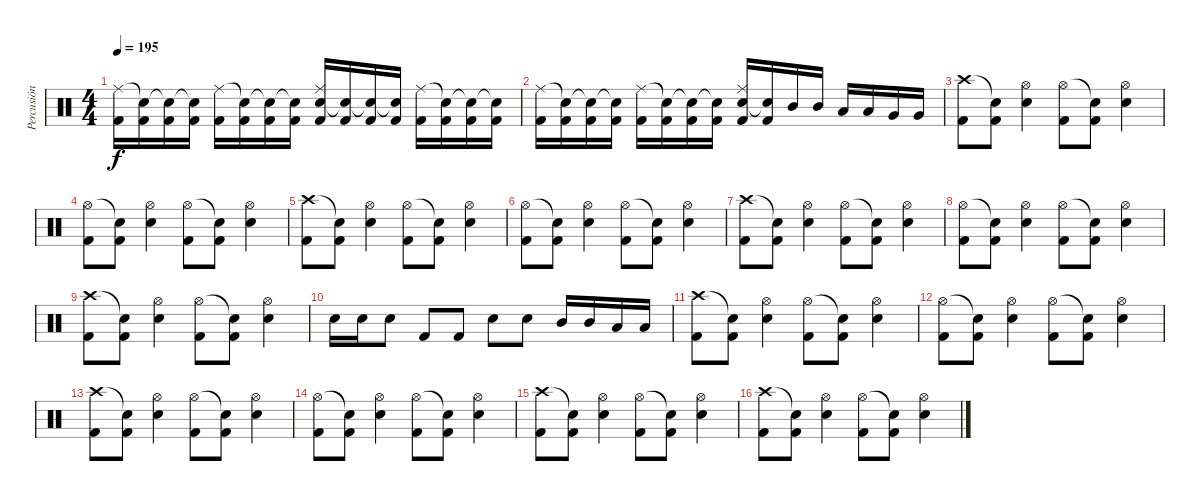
\track ("Percusión" "Percusión") {instrument percussion}
\staff {score}
\articulation defaults
\ts (4 4)
\tempo 195
\clef neutral
\ks c
("Kick (hit) 2" "Ride (middle)").16{dy f} ("Kick (hit) 2" "Snare (hit)"{t}).16 ("Kick (hit) 2" "Snare (hit)"{t}).16 ("Kick (hit) 2" "Snare (hit)"{t}).16 ("Kick (hit) 2" "Ride (middle)").16 ("Kick (hit) 2" "Snare (hit)"{t}).16 ("Kick (hit) 2" "Snare (hit)"{t}).16 ("Kick (hit) 2" "Snare (hit)"{t}).16 ("Kick (hit) 2" "Snare (hit) 2" "Ride (middle)").16 ("Kick (hit) 2" "Snare (hit)"{t}).16 ("Kick (hit) 2" "Snare (hit)"{t}).16 ("Kick (hit) 2" "Snare (hit)"{t}).16 ("Kick (hit) 2" "Ride (middle)").16 ("Kick (hit) 2" "Snare (hit)"{t}).16 ("Kick (hit) 2" "Snare (hit)"{t}).16 ("Kick (hit) 2" "Snare (hit)"{t}).16 |
("Kick (hit) 2" "Ride (middle)").16 ("Kick (hit) 2" "Snare (hit)"{t}).16 ("Kick (hit) 2" "Snare (hit)"{t}).16 ("Kick (hit) 2" "Snare (hit)"{t}).16 ("Kick (hit) 2" "Ride (middle)").16 ("Kick (hit) 2" "Snare (hit)"{t}).16 ("Kick (hit) 2" "Snare (hit)"{t}).16 ("Kick (hit) 2" "Snare (hit)"{t}).16 ("Kick (hit) 2" "Snare (hit) 2" "Ride (middle)").16 ("Kick (hit) 2" "Snare (hit)"{t}).16 "Mid Tom (hit)".16 "Mid Tom (hit)".16 "Low Tom (hit)".16 "Low Tom (hit)".16 "Very Low Tom (hit)".16 "Very Low Tom (hit)".16 |
("Kick (hit) 2" "Crash high (hit)").8 ("Kick (hit) 2" "Snare (hit)"{t}).8 ("Snare (hit) 2" "Hi-Hat (open)").4 ("Kick (hit) 2" "Hi-Hat (open)").8 ("Kick (hit) 2" "Snare (hit)"{t}).8 ("Snare (hit) 2" "Hi-Hat (open)").4 |
("Kick (hit) 2" "Hi-Hat (open)").8 ("Kick (hit) 2" "Snare (hit)"{t}).8 ("Snare (hit) 2" "Hi-Hat (open)").4 ("Kick (hit) 2" "Hi-Hat (open)").8 ("Kick (hit) 2" "Snare (hit)"{t}).8 ("Snare (hit) 2" "Hi-Hat (open)").4 |
("Kick (hit) 2" "Crash high (hit)").8 ("Kick (hit) 2" "Snare (hit)"{t}).8 ("Snare (hit) 2" "Hi-Hat (open)").4 ("Kick (hit) 2" "Hi-Hat (open)").8 ("Kick (hit) 2" "Snare (hit)"{t}).8 ("Snare (hit) 2" "Hi-Hat (open)").4 |
("Kick (hit) 2" "Hi-Hat (open)").8 ("Kick (hit) 2" "Snare (hit)"{t}).8 ("Snare (hit) 2" "Hi-Hat (open)").4 ("Kick (hit) 2" "Hi-Hat (open)").8 ("Kick (hit) 2" "Snare (hit)"{t}).8 ("Snare (hit) 2" "Hi-Hat (open)").4 |
("Kick (hit) 2" "Crash high (hit)").8 ("Kick (hit) 2" "Snare (hit)"{t}).8 ("Snare (hit) 2" "Hi-Hat (open)").4 ("Kick (hit) 2" "Hi-Hat (open)").8 ("Kick (hit) 2" "Snare (hit)"{t}).8 ("Snare (hit) 2" "Hi-Hat (open)").4 |
("Kick (hit) 2" "Hi-Hat (open)").8 ("Kick (hit) 2" "Snare (hit)"{t}).8 ("Snare (hit) 2" "Hi-Hat (open)").4 ("Kick (hit) 2" "Hi-Hat (open)").8 ("Kick (hit) 2" "Snare (hit)"{t}).8 ("Snare (hit) 2" "Hi-Hat (open)").4 |
("Kick (hit) 2" "Crash high (hit)").8 ("Kick (hit) 2" "Snare (hit)"{t}).8 ("Snare (hit) 2" "Hi-Hat (open)").4 ("Kick (hit) 2" "Hi-Hat (open)").8 ("Kick (hit) 2" "Snare (hit)"{t}).8 ("Snare (hit) 2" "Hi-Hat (open)").4 |
"Snare (hit) 2".16 "Snare (hit) 2".16 "Snare (hit) 2".8 "Kick (hit) 2".8 "Kick (hit) 2".8 "Snare (hit) 2".8 "Snare (hit) 2".8 "Mid Tom (hit)".16 "Mid Tom (hit)".16 "Low Tom (hit)".16 "Low Tom (hit)".16 |
("Kick (hit) 2" "Crash high (hit)").8 ("Kick (hit) 2" "Snare (hit)"{t}).8 ("Snare (hit) 2" "Hi-Hat (open)").4 ("Kick (hit) 2" "Hi-Hat (open)").8 ("Kick (hit) 2" "Snare (hit)"{t}).8 ("Snare (hit) 2" "Hi-Hat (open)").4 |
("Kick (hit) 2" "Hi-Hat (open)").8 ("Kick (hit) 2" "Snare (hit)"{t}).8 ("Snare (hit) 2" "Hi-Hat (open)").4 ("Kick (hit) 2" "Hi-Hat (open)").8 ("Kick (hit) 2" "Snare (hit)"{t}).8 ("Snare (hit) 2" "Hi-Hat (open)").4 |
("Kick (hit) 2" "Crash high (hit)").8 ("Kick (hit) 2" "Snare (hit)"{t}).8 ("Snare (hit) 2" "Hi-Hat (open)").4 ("Kick (hit) 2" "Hi-Hat (open)").8 ("Kick (hit) 2" "Snare (hit)"{t}).8 ("Snare (hit) 2" "Hi-Hat (open)").4 |
("Kick (hit) 2" "Hi-Hat (open)").8 ("Kick (hit) 2" "Snare (hit)"{t}).8 ("Snare (hit) 2" "Hi-Hat (open)").4 ("Kick (hit) 2" "Hi-Hat (open)").8 ("Kick (hit) 2" "Snare (hit)"{t}).8 ("Snare (hit) 2" "Hi-Hat (open)").4 |
("Kick (hit) 2" "Crash high (hit)").8 ("Kick (hit) 2" "Snare (hit)"{t}).8 ("Snare (hit) 2" "Hi-Hat (open)").4 ("Kick (hit) 2" "Hi-Hat (open)").8 ("Kick (hit) 2" "Snare (hit)"{t}).8 ("Snare (hit) 2" "Hi-Hat (open)").4 |
("Kick (hit) 2" "Crash high (hit)").8 ("Kick (hit) 2" "Snare (hit)"{t}).8 ("Snare (hit) 2" "Hi-Hat (open)").4 ("Kick (hit) 2" "Hi-Hat (open)").8 ("Kick (hit) 2" "Snare (hit)"{t}).8 ("Snare (hit) 2" "Hi-Hat (open)").4
